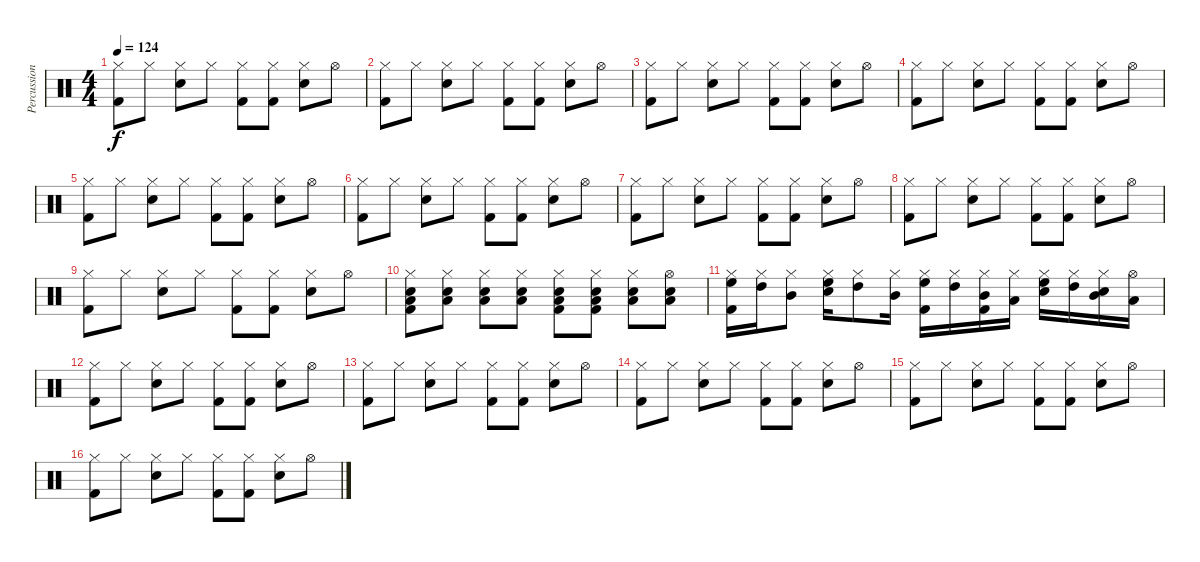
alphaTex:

\track ("Percussions" "Percussion") {instrument percussion}
\staff {score}
\articulation defaults
\ts (4 4)
\tempo 124
\clef neutral
\ks c
("Hi-Hat (closed)" "Kick (hit) 2").8{dy f} "Hi-Hat (closed)".8 ("Hi-Hat (closed)" "Snare (hit) 2").8 "Hi-Hat (closed)".8 ("Hi-Hat (closed)" "Kick (hit) 2").8 ("Hi-Hat (closed)" "Kick (hit) 2").8 ("Hi-Hat (closed)" "Snare (hit) 2").8 "Hi-Hat (open)".8 |
("Hi-Hat (closed)" "Kick (hit) 2").8 "Hi-Hat (closed)".8 ("Hi-Hat (closed)" "Snare (hit) 2").8 "Hi-Hat (closed)".8 ("Hi-Hat (closed)" "Kick (hit) 2").8 ("Hi-Hat (closed)" "Kick (hit) 2").8 ("Hi-Hat (closed)" "Snare (hit) 2").8 "Hi-Hat (open)".8 |
("Hi-Hat (closed)" "Kick (hit) 2").8 "Hi-Hat (closed)".8 ("Hi-Hat (closed)" "Snare (hit) 2").8 "Hi-Hat (closed)".8 ("Hi-Hat (closed)" "Kick (hit) 2").8 ("Hi-Hat (closed)" "Kick (hit) 2").8 ("Hi-Hat (closed)" "Snare (hit) 2").8 "Hi-Hat (open)".8 |
("Hi-Hat (closed)" "Kick (hit) 2").8 "Hi-Hat (closed)".8 ("Hi-Hat (closed)" "Snare (hit) 2").8 "Hi-Hat (closed)".8 ("Hi-Hat (closed)" "Kick (hit) 2").8 ("Hi-Hat (closed)" "Kick (hit) 2").8 ("Hi-Hat (closed)" "Snare (hit) 2").8 "Hi-Hat (open)".8 |
("Hi-Hat (closed)" "Kick (hit) 2").8 "Hi-Hat (closed)".8 ("Hi-Hat (closed)" "Snare (hit) 2").8 "Hi-Hat (closed)".8 ("Hi-Hat (closed)" "Kick (hit) 2").8 ("Hi-Hat (closed)" "Kick (hit) 2").8 ("Hi-Hat (closed)" "Snare (hit) 2").8 "Hi-Hat (open)".8 |
("Hi-Hat (closed)" "Kick (hit) 2").8 "Hi-Hat (closed)".8 ("Hi-Hat (closed)" "Snare (hit) 2").8 "Hi-Hat (closed)".8 ("Hi-Hat (closed)" "Kick (hit) 2").8 ("Hi-Hat (closed)" "Kick (hit) 2").8 ("Hi-Hat (closed)" "Snare (hit) 2").8 "Hi-Hat (open)".8 |
("Hi-Hat (closed)" "Kick (hit) 2").8 "Hi-Hat (closed)".8 ("Hi-Hat (closed)" "Snare (hit) 2").8 "Hi-Hat (closed)".8 ("Hi-Hat (closed)" "Kick (hit) 2").8 ("Hi-Hat (closed)" "Kick (hit) 2").8 ("Hi-Hat (closed)" "Snare (hit) 2").8 "Hi-Hat (open)".8 |
("Hi-Hat (closed)" "Kick (hit) 2").8 "Hi-Hat (closed)".8 ("Hi-Hat (closed)" "Snare (hit) 2").8 "Hi-Hat (closed)".8 ("Hi-Hat (closed)" "Kick (hit) 2").8 ("Hi-Hat (closed)" "Kick (hit) 2").8 ("Hi-Hat (closed)" "Snare (hit) 2").8 "Hi-Hat (open)".8 |
("Hi-Hat (closed)" "Kick (hit) 2").8 "Hi-Hat (closed)".8 ("Hi-Hat (closed)" "Snare (hit) 2").8 "Hi-Hat (closed)".8 ("Hi-Hat (closed)" "Kick (hit) 2").8 ("Hi-Hat (closed)" "Kick (hit) 2").8 ("Hi-Hat (closed)" "Snare (hit) 2").8 "Hi-Hat (open)".8 |
("Hi-Hat (closed)" "Low Tom (hit)" "Snare (hit) 2" "Kick (hit) 2").8 ("Hi-Hat (closed)" "Low Tom (hit)" "Snare (hit) 2").8 ("Hi-Hat (closed)" "Low Tom (hit)" "Snare (hit) 2").8 ("Hi-Hat (closed)" "Low Tom (hit)" "Snare (hit) 2").8 ("Hi-Hat (closed)" "Low Tom (hit)" "Snare (hit) 2" "Kick (hit) 2").8 ("Hi-Hat (closed)" "Low Tom (hit)" "Snare (hit) 2" "Kick (hit) 2").8 ("Hi-Hat (closed)" "Low Tom (hit)" "Snare (hit) 2").8 ("Hi-Hat (open)" "Low Tom (hit)" "Snare (hit) 2").8 |
("Hi-Hat (closed)" "High Floor Tom (hit)" "Kick (hit) 2").16 ("Hi-Hat (closed)" "High Tom (hit)").16 ("Hi-Hat (closed)" "Mid Tom (hit)").8 ("Hi-Hat (closed)" "High Floor Tom (hit)" "Snare (hit) 2").16 ("Hi-Hat (closed)" "High Tom (hit)").8 ("Hi-Hat (closed)" "Mid Tom (hit)").16 ("Hi-Hat (closed)" "High Floor Tom (hit)" "Kick (hit) 2").16 ("Hi-Hat (closed)" "High Tom (hit)").16 ("Hi-Hat (closed)" "Mid Tom (hit)" "Kick (hit) 2").16 ("Hi-Hat (closed)" "Low Tom (hit)").16 ("Hi-Hat (closed)" "High Floor Tom (hit)" "Snare (hit) 2").16 ("Hi-Hat (closed)" "High Tom (hit)").16 ("Hi-Hat (closed)" "Mid Tom (hit)" "Snare (hit) 2").16 ("Hi-Hat (open)" "Low Tom (hit)").16 |
("Hi-Hat (closed)" "Kick (hit) 2").8 "Hi-Hat (closed)".8 ("Hi-Hat (closed)" "Snare (hit) 2").8 "Hi-Hat (closed)".8 ("Hi-Hat (closed)" "Kick (hit) 2").8 ("Hi-Hat (closed)" "Kick (hit) 2").8 ("Hi-Hat (closed)" "Snare (hit) 2").8 "Hi-Hat (open)".8 |
("Hi-Hat (closed)" "Kick (hit) 2").8 "Hi-Hat (closed)".8 ("Hi-Hat (closed)" "Snare (hit) 2").8 "Hi-Hat (closed)".8 ("Hi-Hat (closed)" "Kick (hit) 2").8 ("Hi-Hat (closed)" "Kick (hit) 2").8 ("Hi-Hat (closed)" "Snare (hit) 2").8 "Hi-Hat (open)".8 |
("Hi-Hat (closed)" "Kick (hit) 2").8 "Hi-Hat (closed)".8 ("Hi-Hat (closed)" "Snare (hit) 2").8 "Hi-Hat (closed)".8 ("Hi-Hat (closed)" "Kick (hit) 2").8 ("Hi-Hat (closed)" "Kick (hit) 2").8 ("Hi-Hat (closed)" "Snare (hit) 2").8 "Hi-Hat (open)".8 |
("Hi-Hat (closed)" "Kick (hit) 2").8 "Hi-Hat (closed)".8 ("Hi-Hat (closed)" "Snare (hit) 2").8 "Hi-Hat (closed)".8 ("Hi-Hat (closed)" "Kick (hit) 2").8 ("Hi-Hat (closed)" "Kick (hit) 2").8 ("Hi-Hat (closed)" "Snare (hit) 2").8 "Hi-Hat (open)".8 |
("Hi-Hat (closed)" "Kick (hit) 2").8 "Hi-Hat (closed)".8 ("Hi-Hat (closed)" "Snare (hit) 2").8 "Hi-Hat (closed)".8 ("Hi-Hat (closed)" "Kick (hit) 2").8 ("Hi-Hat (closed)" "Kick (hit) 2").8 ("Hi-Hat (closed)" "Snare (hit) 2").8 "Hi-Hat (open)".8
